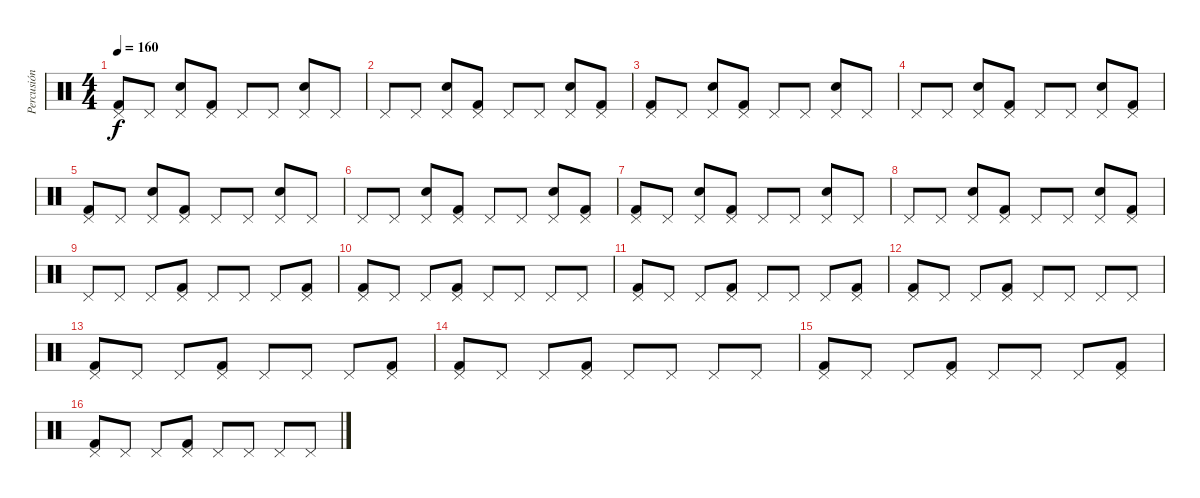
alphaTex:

\track ("Percusión" "Percusión") {instrument percussion}
\staff {score}
\articulation defaults
\ts (4 4)
\tempo 160
\clef neutral
\ks c
("Pedal Hi-Hat (hit)" "Kick (hit) 2").8{dy f} "Pedal Hi-Hat (hit)".8 ("Pedal Hi-Hat (hit)" "Electric Snare (hit)").8 ("Pedal Hi-Hat (hit)" "Kick (hit) 2").8 "Pedal Hi-Hat (hit)".8 "Pedal Hi-Hat (hit)".8 ("Pedal Hi-Hat (hit)" "Electric Snare (hit)").8 "Pedal Hi-Hat (hit)".8 |
"Pedal Hi-Hat (hit)".8 "Pedal Hi-Hat (hit)".8 ("Pedal Hi-Hat (hit)" "Electric Snare (hit)").8 ("Pedal Hi-Hat (hit)" "Kick (hit) 2").8 "Pedal Hi-Hat (hit)".8 "Pedal Hi-Hat (hit)".8 ("Pedal Hi-Hat (hit)" "Electric Snare (hit)").8 ("Pedal Hi-Hat (hit)" "Kick (hit) 2").8 |
("Pedal Hi-Hat (hit)" "Kick (hit) 2").8 "Pedal Hi-Hat (hit)".8 ("Pedal Hi-Hat (hit)" "Electric Snare (hit)").8 ("Pedal Hi-Hat (hit)" "Kick (hit) 2").8 "Pedal Hi-Hat (hit)".8 "Pedal Hi-Hat (hit)".8 ("Pedal Hi-Hat (hit)" "Electric Snare (hit)").8 "Pedal Hi-Hat (hit)".8 |
"Pedal Hi-Hat (hit)".8 "Pedal Hi-Hat (hit)".8 ("Pedal Hi-Hat (hit)" "Electric Snare (hit)").8 ("Pedal Hi-Hat (hit)" "Kick (hit) 2").8 "Pedal Hi-Hat (hit)".8 "Pedal Hi-Hat (hit)".8 ("Pedal Hi-Hat (hit)" "Electric Snare (hit)").8 ("Pedal Hi-Hat (hit)" "Kick (hit) 2").8 |
("Pedal Hi-Hat (hit)" "Kick (hit) 2").8 "Pedal Hi-Hat (hit)".8 ("Pedal Hi-Hat (hit)" "Electric Snare (hit)").8 ("Pedal Hi-Hat (hit)" "Kick (hit) 2").8 "Pedal Hi-Hat (hit)".8 "Pedal Hi-Hat (hit)".8 ("Pedal Hi-Hat (hit)" "Electric Snare (hit)").8 "Pedal Hi-Hat (hit)".8 |
"Pedal Hi-Hat (hit)".8 "Pedal Hi-Hat (hit)".8 ("Pedal Hi-Hat (hit)" "Electric Snare (hit)").8 ("Pedal Hi-Hat (hit)" "Kick (hit) 2").8 "Pedal Hi-Hat (hit)".8 "Pedal Hi-Hat (hit)".8 ("Pedal Hi-Hat (hit)" "Electric Snare (hit)").8 ("Pedal Hi-Hat (hit)" "Kick (hit) 2").8 |
("Pedal Hi-Hat (hit)" "Kick (hit) 2").8 "Pedal Hi-Hat (hit)".8 ("Pedal Hi-Hat (hit)" "Electric Snare (hit)").8 ("Pedal Hi-Hat (hit)" "Kick (hit) 2").8 "Pedal Hi-Hat (hit)".8 "Pedal Hi-Hat (hit)".8 ("Pedal Hi-Hat (hit)" "Electric Snare (hit)").8 "Pedal Hi-Hat (hit)".8 |
"Pedal Hi-Hat (hit)".8 "Pedal Hi-Hat (hit)".8 ("Pedal Hi-Hat (hit)" "Electric Snare (hit)").8 ("Pedal Hi-Hat (hit)" "Kick (hit) 2").8 "Pedal Hi-Hat (hit)".8 "Pedal Hi-Hat (hit)".8 ("Pedal Hi-Hat (hit)" "Electric Snare (hit)").8 ("Pedal Hi-Hat (hit)" "Kick (hit) 2").8 |
"Pedal Hi-Hat (hit)".8 "Pedal Hi-Hat (hit)".8 "Pedal Hi-Hat (hit)".8 ("Pedal Hi-Hat (hit)" "Kick (hit) 2").8 "Pedal Hi-Hat (hit)".8 "Pedal Hi-Hat (hit)".8 "Pedal Hi-Hat (hit)".8 ("Pedal Hi-Hat (hit)" "Kick (hit) 2").8 |
("Pedal Hi-Hat (hit)" "Kick (hit) 2").8 "Pedal Hi-Hat (hit)".8 "Pedal Hi-Hat (hit)".8 ("Pedal Hi-Hat (hit)" "Kick (hit) 2").8 "Pedal Hi-Hat (hit)".8 "Pedal Hi-Hat (hit)".8 "Pedal Hi-Hat (hit)".8 "Pedal Hi-Hat (hit)".8 |
("Pedal Hi-Hat (hit)" "Kick (hit) 2").8 "Pedal Hi-Hat (hit)".8 "Pedal Hi-Hat (hit)".8 ("Pedal Hi-Hat (hit)" "Kick (hit) 2").8 "Pedal Hi-Hat (hit)".8 "Pedal Hi-Hat (hit)".8 "Pedal Hi-Hat (hit)".8 ("Pedal Hi-Hat (hit)" "Kick (hit) 2").8 |
("Pedal Hi-Hat (hit)" "Kick (hit) 2").8 "Pedal Hi-Hat (hit)".8 "Pedal Hi-Hat (hit)".8 ("Pedal Hi-Hat (hit)" "Kick (hit) 2").8 "Pedal Hi-Hat (hit)".8 "Pedal Hi-Hat (hit)".8 "Pedal Hi-Hat (hit)".8 "Pedal Hi-Hat (hit)".8 |
("Pedal Hi-Hat (hit)" "Kick (hit) 2").8 "Pedal Hi-Hat (hit)".8 "Pedal Hi-Hat (hit)".8 ("Pedal Hi-Hat (hit)" "Kick (hit) 2").8 "Pedal Hi-Hat (hit)".8 "Pedal Hi-Hat (hit)".8 "Pedal Hi-Hat (hit)".8 ("Pedal Hi-Hat (hit)" "Kick (hit) 2").8 |
("Pedal Hi-Hat (hit)" "Kick (hit) 2").8 "Pedal Hi-Hat (hit)".8 "Pedal Hi-Hat (hit)".8 ("Pedal Hi-Hat (hit)" "Kick (hit) 2").8 "Pedal Hi-Hat (hit)".8 "Pedal Hi-Hat (hit)".8 "Pedal Hi-Hat (hit)".8 "Pedal Hi-Hat (hit)".8 |
("Pedal Hi-Hat (hit)" "Kick (hit) 2").8 "Pedal Hi-Hat (hit)".8 "Pedal Hi-Hat (hit)".8 ("Pedal Hi-Hat (hit)" "Kick (hit) 2").8 "Pedal Hi-Hat (hit)".8 "Pedal Hi-Hat (hit)".8 "Pedal Hi-Hat (hit)".8 ("Pedal Hi-Hat (hit)" "Kick (hit) 2").8 |
("Pedal Hi-Hat (hit)" "Kick (hit) 2").8 "Pedal Hi-Hat (hit)".8 "Pedal Hi-Hat (hit)".8 ("Pedal Hi-Hat (hit)" "Kick (hit) 2").8 "Pedal Hi-Hat (hit)".8 "Pedal Hi-Hat (hit)".8 "Pedal Hi-Hat (hit)".8 "Pedal Hi-Hat (hit)".8
